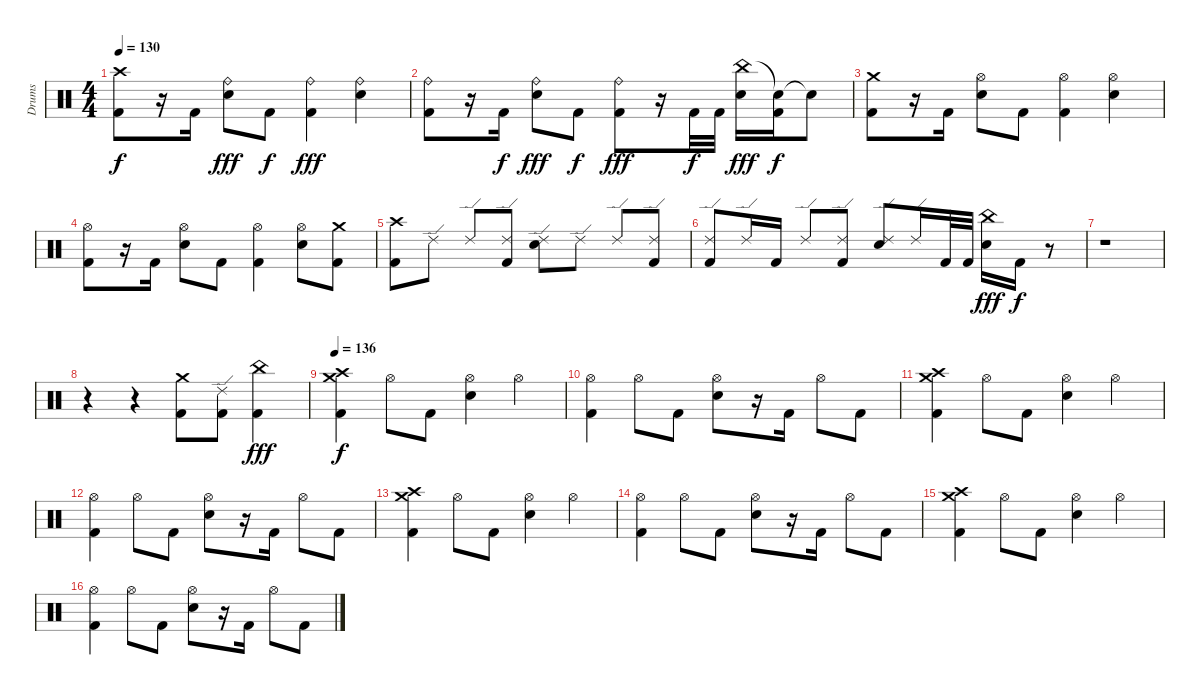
\track ("Drums" "Drums") {instrument percussion}
\staff {score}
\articulation defaults
\ts (4 4)
\tempo 130
\clef neutral
\ks c
("Crash high (hit)" "Kick (hit) 2").8{dy f} r.16 "Kick (hit) 2".16 ("Ride (bell)" "Electric Snare (hit)").8{dy fff} "Kick (hit) 2".8{dy f} ("Ride (bell)" "Kick (hit) 2").4{dy fff} ("Ride (bell)" "Electric Snare (hit)").4 |
("Ride (bell)" "Kick (hit) 2").8 r.16 "Kick (hit) 2".16{dy f} ("Ride (bell)" "Electric Snare (hit)").8{dy fff} "Kick (hit) 2".8{dy f} ("Ride (bell)" "Kick (hit) 2").8{dy fff} r.16 "Kick (hit) 2".32{dy f} "Kick (hit) 2".32 ("China (hit)" "Electric Snare (hit)").16{dy fff} ("Snare (hit)"{t} "Kick (hit) 2").16{dy f} "Snare (hit)"{t}.8 |
("Crash medium (hit)" "Kick (hit) 2").8 r.16 "Kick (hit) 2".16 ("Hi-Hat (open)" "Electric Snare (hit)").8 "Kick (hit) 2".8 ("Hi-Hat (open)" "Kick (hit) 2").4 ("Hi-Hat (open)" "Electric Snare (hit)").4 |
("Hi-Hat (open)" "Kick (hit) 2").8 r.16 "Kick (hit) 2".16 ("Hi-Hat (open)" "Electric Snare (hit)").8 "Kick (hit) 2".8 ("Hi-Hat (open)" "Kick (hit) 2").4 ("Hi-Hat (open)" "Electric Snare (hit)").8 ("Crash medium (hit)" "Kick (hit) 2").8 |
("Crash high (hit)" "Kick (hit) 2").8 "Ride (edge) 2".8 "Ride (edge) 2".8 ("Ride (edge) 2" "Kick (hit) 2").8 ("Ride (edge) 2" "Electric Snare (hit)").8 "Ride (edge) 2".8 "Ride (edge) 2".8 ("Ride (edge) 2" "Kick (hit) 2").8 |
("Ride (edge) 2" "Kick (hit) 2").8 "Ride (edge) 2".16 "Kick (hit) 2".16 "Ride (edge) 2".8 ("Ride (edge) 2" "Kick (hit) 2").8 ("Ride (edge) 2" "Electric Snare (hit)").8 "Ride (edge) 2".16 "Kick (hit) 2".32 "Kick (hit) 2".32 ("China (hit)" "Electric Snare (hit)").16{dy fff} "Kick (hit) 2".16{dy f} r.8 |
r.1 |
r.4 r.4 ("Crash medium (hit)" "Kick (hit) 2").8 ("Ride (edge) 2" "Kick (hit) 2").8 ("China (hit)" "Kick (hit) 2").4{dy fff} |
\tempo 136
("Crash medium (hit)" "Crash high (hit)" "Kick (hit) 2").4{dy f} "Hi-Hat (open)".8 "Kick (hit) 2".8 ("Hi-Hat (open)" "Electric Snare (hit)").4 "Hi-Hat (open)".4 |
("Hi-Hat (open)" "Kick (hit) 2").4 "Hi-Hat (open)".8 "Kick (hit) 2".8 ("Hi-Hat (open)" "Electric Snare (hit)").8 r.16 "Kick (hit) 2".16 "Hi-Hat (open)".8 "Kick (hit) 2".8 |
("Crash medium (hit)" "Crash high (hit)" "Kick (hit) 2").4 "Hi-Hat (open)".8 "Kick (hit) 2".8 ("Hi-Hat (open)" "Electric Snare (hit)").4 "Hi-Hat (open)".4 |
("Hi-Hat (open)" "Kick (hit) 2").4 "Hi-Hat (open)".8 "Kick (hit) 2".8 ("Hi-Hat (open)" "Electric Snare (hit)").8 r.16 "Kick (hit) 2".16 "Hi-Hat (open)".8 "Kick (hit) 2".8 |
("Crash medium (hit)" "Crash high (hit)" "Kick (hit) 2").4 "Hi-Hat (open)".8 "Kick (hit) 2".8 ("Hi-Hat (open)" "Electric Snare (hit)").4 "Hi-Hat (open)".4 |
("Hi-Hat (open)" "Kick (hit) 2").4 "Hi-Hat (open)".8 "Kick (hit) 2".8 ("Hi-Hat (open)" "Electric Snare (hit)").8 r.16 "Kick (hit) 2".16 "Hi-Hat (open)".8 "Kick (hit) 2".8 |
("Crash medium (hit)" "Crash high (hit)" "Kick (hit) 2").4 "Hi-Hat (open)".8 "Kick (hit) 2".8 ("Hi-Hat (open)" "Electric Snare (hit)").4 "Hi-Hat (open)".4 |
("Hi-Hat (open)" "Kick (hit) 2").4 "Hi-Hat (open)".8 "Kick (hit) 2".8 ("Hi-Hat (open)" "Electric Snare (hit)").8 r.16 "Kick (hit) 2".16 "Hi-Hat (open)".8 "Kick (hit) 2".8
